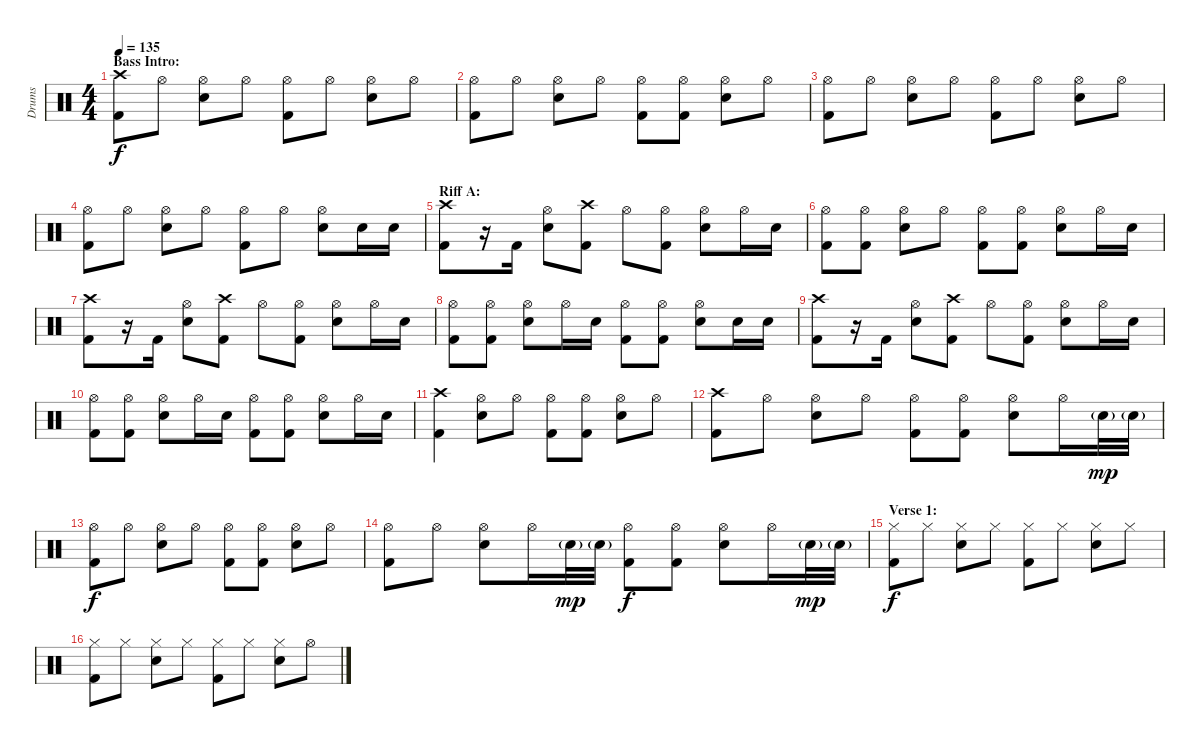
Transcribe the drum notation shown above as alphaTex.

\track ("Drums" "Drums") {instrument percussion}
\staff {score}
\articulation defaults
\ts (4 4)
\section ("" "Bass Intro:")
\tempo 135
\clef neutral
\ks c
("Crash high (hit)" "Kick (hit) 2").8{dy f} "Hi-Hat (open)".8 ("Hi-Hat (open)" "Snare (hit) 2").8 "Hi-Hat (open)".8 ("Hi-Hat (open)" "Kick (hit) 2").8 "Hi-Hat (open)".8 ("Hi-Hat (open)" "Snare (hit) 2").8 "Hi-Hat (open)".8 |
("Hi-Hat (open)" "Kick (hit) 2").8 "Hi-Hat (open)".8 ("Hi-Hat (open)" "Snare (hit) 2").8 "Hi-Hat (open)".8 ("Hi-Hat (open)" "Kick (hit) 2").8 ("Hi-Hat (open)" "Kick (hit) 2").8 ("Hi-Hat (open)" "Snare (hit) 2").8 "Hi-Hat (open)".8 |
("Hi-Hat (open)" "Kick (hit) 2").8 "Hi-Hat (open)".8 ("Hi-Hat (open)" "Snare (hit) 2").8 "Hi-Hat (open)".8 ("Hi-Hat (open)" "Kick (hit) 2").8 "Hi-Hat (open)".8 ("Hi-Hat (open)" "Snare (hit) 2").8 "Hi-Hat (open)".8 |
("Hi-Hat (open)" "Kick (hit) 2").8 "Hi-Hat (open)".8 ("Hi-Hat (open)" "Snare (hit) 2").8 "Hi-Hat (open)".8 ("Hi-Hat (open)" "Kick (hit) 2").8 "Hi-Hat (open)".8 ("Hi-Hat (open)" "Snare (hit) 2").8 "Snare (hit) 2".16 "Snare (hit) 2".16 |
\section ("" "Riff A:")
("Crash high (hit)" "Kick (hit) 2").8 r.16 "Kick (hit) 2".16 ("Hi-Hat (open)" "Snare (hit) 2").8 ("Crash high (hit)" "Kick (hit) 2").8 "Hi-Hat (open)".8 ("Hi-Hat (open)" "Kick (hit) 2").8 ("Hi-Hat (open)" "Snare (hit) 2").8 "Hi-Hat (open)".16 "Snare (hit) 2".16 |
("Hi-Hat (open)" "Kick (hit) 2").8 ("Hi-Hat (open)" "Kick (hit) 2").8 ("Hi-Hat (open)" "Snare (hit) 2").8 "Hi-Hat (open)".8 ("Hi-Hat (open)" "Kick (hit) 2").8 ("Hi-Hat (open)" "Kick (hit) 2").8 ("Hi-Hat (open)" "Snare (hit) 2").8 "Hi-Hat (open)".16 "Snare (hit) 2".16 |
("Crash high (hit)" "Kick (hit) 2").8 r.16 "Kick (hit) 2".16 ("Hi-Hat (open)" "Snare (hit) 2").8 ("Crash high (hit)" "Kick (hit) 2").8 "Hi-Hat (open)".8 ("Hi-Hat (open)" "Kick (hit) 2").8 ("Hi-Hat (open)" "Snare (hit) 2").8 "Hi-Hat (open)".16 "Snare (hit) 2".16 |
("Hi-Hat (open)" "Kick (hit) 2").8 ("Hi-Hat (open)" "Kick (hit) 2").8 ("Hi-Hat (open)" "Snare (hit) 2").8 "Hi-Hat (open)".16 "Snare (hit) 2".16 ("Hi-Hat (open)" "Kick (hit) 2").8 ("Hi-Hat (open)" "Kick (hit) 2").8 ("Hi-Hat (open)" "Snare (hit) 2").8 "Snare (hit) 2".16 "Snare (hit) 2".16 |
("Crash high (hit)" "Kick (hit) 2").8 r.16 "Kick (hit) 2".16 ("Hi-Hat (open)" "Snare (hit) 2").8 ("Crash high (hit)" "Kick (hit) 2").8 "Hi-Hat (open)".8 ("Hi-Hat (open)" "Kick (hit) 2").8 ("Hi-Hat (open)" "Snare (hit) 2").8 "Hi-Hat (open)".16 "Snare (hit) 2".16 |
("Hi-Hat (open)" "Kick (hit) 2").8 ("Hi-Hat (open)" "Kick (hit) 2").8 ("Hi-Hat (open)" "Snare (hit) 2").8 "Hi-Hat (open)".16 "Snare (hit) 2".16 ("Hi-Hat (open)" "Kick (hit) 2").8 ("Hi-Hat (open)" "Kick (hit) 2").8 ("Hi-Hat (open)" "Snare (hit) 2").8 "Hi-Hat (open)".16 "Snare (hit) 2".16 |
("Crash high (hit)" "Kick (hit) 2").4 ("Hi-Hat (open)" "Snare (hit) 2").8 "Hi-Hat (open)".8 ("Hi-Hat (open)" "Kick (hit) 2").8 ("Hi-Hat (open)" "Kick (hit) 2").8 ("Hi-Hat (open)" "Snare (hit) 2").8 "Hi-Hat (open)".8 |
("Crash high (hit)" "Kick (hit) 2").8 "Hi-Hat (open)".8 ("Hi-Hat (open)" "Snare (hit) 2").8 "Hi-Hat (open)".8 ("Hi-Hat (open)" "Kick (hit) 2").8 ("Hi-Hat (open)" "Kick (hit) 2").8 ("Hi-Hat (open)" "Snare (hit) 2").8 "Hi-Hat (open)".16 "Snare (hit) 2"{g}.32{dy mp} "Snare (hit) 2"{g}.32 |
("Hi-Hat (open)" "Kick (hit) 2").8{dy f} "Hi-Hat (open)".8 ("Hi-Hat (open)" "Snare (hit) 2").8 "Hi-Hat (open)".8 ("Hi-Hat (open)" "Kick (hit) 2").8 ("Hi-Hat (open)" "Kick (hit) 2").8 ("Hi-Hat (open)" "Snare (hit) 2").8 "Hi-Hat (open)".8 |
("Hi-Hat (open)" "Kick (hit) 2").8 "Hi-Hat (open)".8 ("Hi-Hat (open)" "Snare (hit) 2").8 "Hi-Hat (open)".16 "Snare (hit) 2"{g}.32{dy mp} "Snare (hit) 2"{g}.32 ("Hi-Hat (open)" "Kick (hit) 2").8{dy f} ("Hi-Hat (open)" "Kick (hit) 2").8 ("Hi-Hat (open)" "Snare (hit) 2").8 "Hi-Hat (open)".16 "Snare (hit) 2"{g}.32{dy mp} "Snare (hit) 2"{g}.32 |
\section ("" "Verse 1:")
("Hi-Hat (closed)" "Kick (hit) 2").8{dy f} "Hi-Hat (closed)".8 ("Hi-Hat (closed)" "Snare (hit) 2").8 "Hi-Hat (closed)".8 ("Hi-Hat (closed)" "Kick (hit) 2").8 "Hi-Hat (closed)".8 ("Hi-Hat (closed)" "Snare (hit) 2").8 "Hi-Hat (closed)".8 |
("Hi-Hat (closed)" "Kick (hit) 2").8 "Hi-Hat (closed)".8 ("Hi-Hat (closed)" "Snare (hit) 2").8 "Hi-Hat (closed)".8 ("Hi-Hat (closed)" "Kick (hit) 2").8 "Hi-Hat (closed)".8 ("Hi-Hat (closed)" "Snare (hit) 2").8 "Hi-Hat (open)".8
